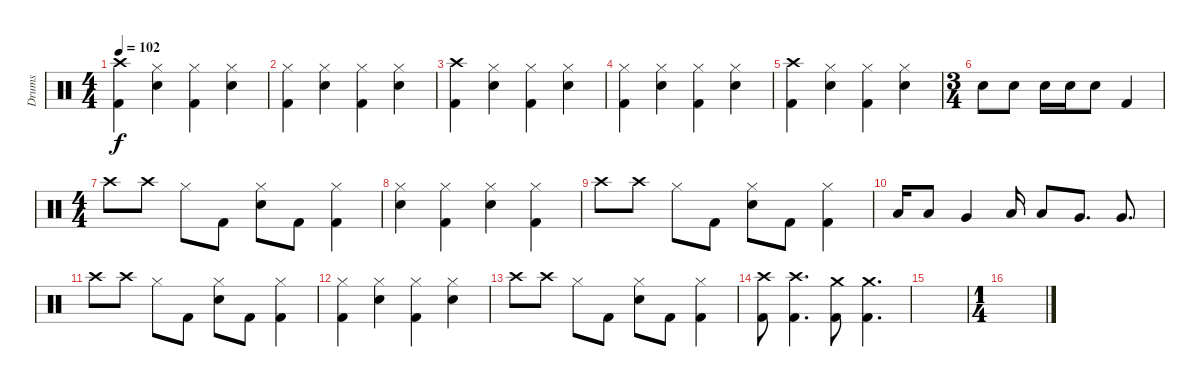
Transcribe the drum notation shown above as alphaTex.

\track ("Drums" "Drums") {instrument percussion}
\staff {score}
\articulation defaults
\ts (4 4)
\tempo 102
\clef neutral
\ks c
("Kick (hit) 2" "Crash high (hit)").4{dy f} ("Snare (hit) 2" "Hi-Hat (closed)").4 ("Kick (hit) 2" "Hi-Hat (closed)").4 ("Snare (hit) 2" "Hi-Hat (closed)").4 |
("Kick (hit) 2" "Hi-Hat (closed)").4 ("Snare (hit) 2" "Hi-Hat (closed)").4 ("Kick (hit) 2" "Hi-Hat (closed)").4 ("Snare (hit) 2" "Hi-Hat (closed)").4 |
("Kick (hit) 2" "Crash high (hit)").4 ("Snare (hit) 2" "Hi-Hat (closed)").4 ("Kick (hit) 2" "Hi-Hat (closed)").4 ("Snare (hit) 2" "Hi-Hat (closed)").4 |
("Kick (hit) 2" "Hi-Hat (closed)").4 ("Snare (hit) 2" "Hi-Hat (closed)").4 ("Kick (hit) 2" "Hi-Hat (closed)").4 ("Snare (hit) 2" "Hi-Hat (closed)").4 |
("Kick (hit) 2" "Crash high (hit)").4 ("Snare (hit) 2" "Hi-Hat (closed)").4 ("Kick (hit) 2" "Hi-Hat (closed)").4 ("Snare (hit) 2" "Hi-Hat (closed)").4 |
\ts (3 4)
"Snare (hit) 2".8 "Snare (hit) 2".8 "Snare (hit) 2".16 "Snare (hit) 2".16 "Snare (hit) 2".8 "Kick (hit) 2".4 |
\ts (4 4)
"Crash high (hit)".8 "Crash high (hit)".8 "Hi-Hat (closed)".8 "Kick (hit) 2".8 ("Snare (hit) 2" "Hi-Hat (closed)").8 "Kick (hit) 2".8 ("Kick (hit) 2" "Hi-Hat (closed)").4 |
("Snare (hit) 2" "Hi-Hat (closed)").4 ("Kick (hit) 2" "Hi-Hat (closed)").4 ("Snare (hit) 2" "Hi-Hat (closed)").4 ("Kick (hit) 2" "Hi-Hat (closed)").4 |
"Crash high (hit)".8 "Crash high (hit)".8 "Hi-Hat (closed)".8 "Kick (hit) 2".8 ("Snare (hit) 2" "Hi-Hat (closed)").8 "Kick (hit) 2".8 ("Kick (hit) 2" "Hi-Hat (closed)").4 |
"Low Tom (hit)".16{volume 16} "Low Tom (hit)".8 "Very Low Tom (hit)".4 "Low Tom (hit)".16 "Low Tom (hit)".8 "Very Low Tom (hit)".8{d} "Very Low Tom (hit)".8{d} |
"Crash high (hit)".8 "Crash high (hit)".8 "Hi-Hat (closed)".8 "Kick (hit) 2".8 ("Snare (hit) 2" "Hi-Hat (closed)").8 "Kick (hit) 2".8 ("Kick (hit) 2" "Hi-Hat (closed)").4 |
("Kick (hit) 2" "Hi-Hat (closed)").4 ("Snare (hit) 2" "Hi-Hat (closed)").4 ("Kick (hit) 2" "Hi-Hat (closed)").4 ("Snare (hit) 2" "Hi-Hat (closed)").4 |
"Crash high (hit)".8 "Crash high (hit)".8 "Hi-Hat (closed)".8 "Kick (hit) 2".8 ("Snare (hit) 2" "Hi-Hat (closed)").8 "Kick (hit) 2".8 ("Kick (hit) 2" "Hi-Hat (closed)").4 |
("Kick (hit) 2" "Crash high (hit)").8 ("Kick (hit) 2" "Crash high (hit)").4{d} ("Kick (hit) 2" "Crash medium (hit)").8 ("Kick (hit) 2" "Crash medium (hit)").4{d} |
|
\ts (1 4)
